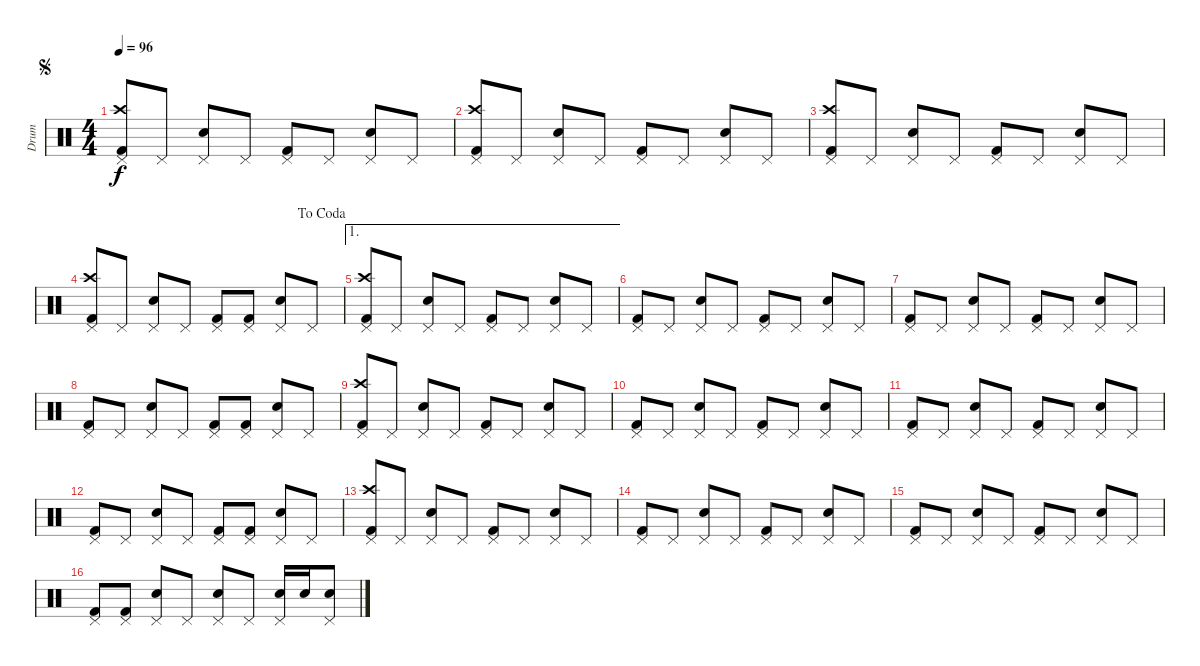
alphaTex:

\track ("Drum" "Drum") {instrument percussion}
\staff {score}
\articulation defaults
\ts (4 4)
\jump segno
\tempo 96
\clef neutral
\ks c
("Pedal Hi-Hat (hit)" "Crash high (hit)" "Kick (hit) 2").8{dy f} "Pedal Hi-Hat (hit)".8 ("Pedal Hi-Hat (hit)" "Snare (hit) 2").8 "Pedal Hi-Hat (hit)".8 ("Pedal Hi-Hat (hit)" "Kick (hit) 2").8 "Pedal Hi-Hat (hit)".8 ("Pedal Hi-Hat (hit)" "Snare (hit) 2").8 "Pedal Hi-Hat (hit)".8 |
("Pedal Hi-Hat (hit)" "Crash high (hit)" "Kick (hit) 2").8 "Pedal Hi-Hat (hit)".8 ("Pedal Hi-Hat (hit)" "Snare (hit) 2").8 "Pedal Hi-Hat (hit)".8 ("Pedal Hi-Hat (hit)" "Kick (hit) 2").8 "Pedal Hi-Hat (hit)".8 ("Pedal Hi-Hat (hit)" "Snare (hit) 2").8 "Pedal Hi-Hat (hit)".8 |
("Pedal Hi-Hat (hit)" "Crash high (hit)" "Kick (hit) 2").8 "Pedal Hi-Hat (hit)".8 ("Pedal Hi-Hat (hit)" "Snare (hit) 2").8 "Pedal Hi-Hat (hit)".8 ("Pedal Hi-Hat (hit)" "Kick (hit) 2").8 "Pedal Hi-Hat (hit)".8 ("Pedal Hi-Hat (hit)" "Snare (hit) 2").8 "Pedal Hi-Hat (hit)".8 |
\jump dacoda
("Pedal Hi-Hat (hit)" "Crash high (hit)" "Kick (hit) 2").8 "Pedal Hi-Hat (hit)".8 ("Pedal Hi-Hat (hit)" "Snare (hit) 2").8 "Pedal Hi-Hat (hit)".8 ("Pedal Hi-Hat (hit)" "Kick (hit) 2").8 ("Pedal Hi-Hat (hit)" "Kick (hit) 2").8 ("Pedal Hi-Hat (hit)" "Snare (hit) 2").8 "Pedal Hi-Hat (hit)".8 |
\ae 1
("Pedal Hi-Hat (hit)" "Crash high (hit)" "Kick (hit) 2").8 "Pedal Hi-Hat (hit)".8 ("Pedal Hi-Hat (hit)" "Snare (hit) 2").8 "Pedal Hi-Hat (hit)".8 ("Pedal Hi-Hat (hit)" "Kick (hit) 2").8 "Pedal Hi-Hat (hit)".8 ("Pedal Hi-Hat (hit)" "Snare (hit) 2").8 "Pedal Hi-Hat (hit)".8 |
("Pedal Hi-Hat (hit)" "Kick (hit) 2").8 "Pedal Hi-Hat (hit)".8 ("Pedal Hi-Hat (hit)" "Snare (hit) 2").8 "Pedal Hi-Hat (hit)".8 ("Pedal Hi-Hat (hit)" "Kick (hit) 2").8 "Pedal Hi-Hat (hit)".8 ("Pedal Hi-Hat (hit)" "Snare (hit) 2").8 "Pedal Hi-Hat (hit)".8 |
("Pedal Hi-Hat (hit)" "Kick (hit) 2").8 "Pedal Hi-Hat (hit)".8 ("Pedal Hi-Hat (hit)" "Snare (hit) 2").8 "Pedal Hi-Hat (hit)".8 ("Pedal Hi-Hat (hit)" "Kick (hit) 2").8 "Pedal Hi-Hat (hit)".8 ("Pedal Hi-Hat (hit)" "Snare (hit) 2").8 "Pedal Hi-Hat (hit)".8 |
("Pedal Hi-Hat (hit)" "Kick (hit) 2").8 "Pedal Hi-Hat (hit)".8 ("Pedal Hi-Hat (hit)" "Snare (hit) 2").8 "Pedal Hi-Hat (hit)".8 ("Pedal Hi-Hat (hit)" "Kick (hit) 2").8 ("Pedal Hi-Hat (hit)" "Kick (hit) 2").8 ("Pedal Hi-Hat (hit)" "Snare (hit) 2").8 "Pedal Hi-Hat (hit)".8 |
("Pedal Hi-Hat (hit)" "Crash high (hit)" "Kick (hit) 2").8 "Pedal Hi-Hat (hit)".8 ("Pedal Hi-Hat (hit)" "Snare (hit) 2").8 "Pedal Hi-Hat (hit)".8 ("Pedal Hi-Hat (hit)" "Kick (hit) 2").8 "Pedal Hi-Hat (hit)".8 ("Pedal Hi-Hat (hit)" "Snare (hit) 2").8 "Pedal Hi-Hat (hit)".8 |
("Pedal Hi-Hat (hit)" "Kick (hit) 2").8 "Pedal Hi-Hat (hit)".8 ("Pedal Hi-Hat (hit)" "Snare (hit) 2").8 "Pedal Hi-Hat (hit)".8 ("Pedal Hi-Hat (hit)" "Kick (hit) 2").8 "Pedal Hi-Hat (hit)".8 ("Pedal Hi-Hat (hit)" "Snare (hit) 2").8 "Pedal Hi-Hat (hit)".8 |
("Pedal Hi-Hat (hit)" "Kick (hit) 2").8 "Pedal Hi-Hat (hit)".8 ("Pedal Hi-Hat (hit)" "Snare (hit) 2").8 "Pedal Hi-Hat (hit)".8 ("Pedal Hi-Hat (hit)" "Kick (hit) 2").8 "Pedal Hi-Hat (hit)".8 ("Pedal Hi-Hat (hit)" "Snare (hit) 2").8 "Pedal Hi-Hat (hit)".8 |
("Pedal Hi-Hat (hit)" "Kick (hit) 2").8 "Pedal Hi-Hat (hit)".8 ("Pedal Hi-Hat (hit)" "Snare (hit) 2").8 "Pedal Hi-Hat (hit)".8 ("Pedal Hi-Hat (hit)" "Kick (hit) 2").8 ("Pedal Hi-Hat (hit)" "Kick (hit) 2").8 ("Pedal Hi-Hat (hit)" "Snare (hit) 2").8 "Pedal Hi-Hat (hit)".8 |
("Pedal Hi-Hat (hit)" "Crash high (hit)" "Kick (hit) 2").8 "Pedal Hi-Hat (hit)".8 ("Pedal Hi-Hat (hit)" "Snare (hit) 2").8 "Pedal Hi-Hat (hit)".8 ("Pedal Hi-Hat (hit)" "Kick (hit) 2").8 "Pedal Hi-Hat (hit)".8 ("Pedal Hi-Hat (hit)" "Snare (hit) 2").8 "Pedal Hi-Hat (hit)".8 |
("Pedal Hi-Hat (hit)" "Kick (hit) 2").8 "Pedal Hi-Hat (hit)".8 ("Pedal Hi-Hat (hit)" "Snare (hit) 2").8 "Pedal Hi-Hat (hit)".8 ("Pedal Hi-Hat (hit)" "Kick (hit) 2").8 "Pedal Hi-Hat (hit)".8 ("Pedal Hi-Hat (hit)" "Snare (hit) 2").8 "Pedal Hi-Hat (hit)".8 |
("Pedal Hi-Hat (hit)" "Kick (hit) 2").8 "Pedal Hi-Hat (hit)".8 ("Pedal Hi-Hat (hit)" "Snare (hit) 2").8 "Pedal Hi-Hat (hit)".8 ("Pedal Hi-Hat (hit)" "Kick (hit) 2").8 "Pedal Hi-Hat (hit)".8 ("Pedal Hi-Hat (hit)" "Snare (hit) 2").8 "Pedal Hi-Hat (hit)".8 |
("Pedal Hi-Hat (hit)" "Kick (hit) 2").8 ("Pedal Hi-Hat (hit)" "Kick (hit) 2").8 ("Pedal Hi-Hat (hit)" "Snare (hit) 2").8 "Pedal Hi-Hat (hit)".8 ("Pedal Hi-Hat (hit)" "Snare (hit) 2").8 "Pedal Hi-Hat (hit)".8 ("Pedal Hi-Hat (hit)" "Snare (hit) 2").16 "Snare (hit) 2".16 ("Pedal Hi-Hat (hit)" "Snare (hit) 2").8
